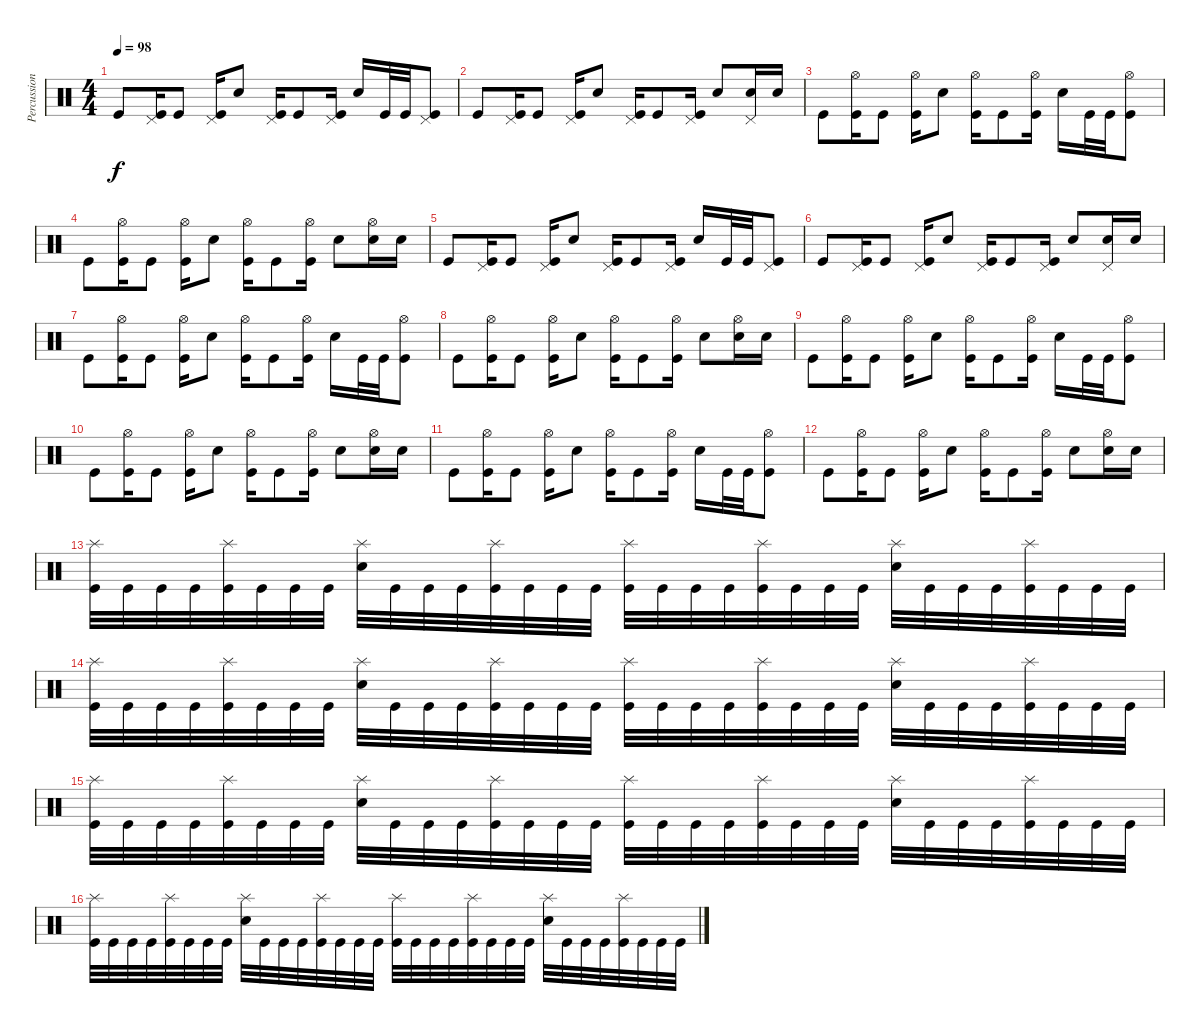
\track ("Percussions" "Percussion") {instrument percussion}
\staff {score}
\articulation defaults
\ts (4 4)
\tempo 98
\clef neutral
\ks c "Kick (hit)".8{dy f}
("Pedal Hi-Hat (hit)" "Kick (hit)").16 "Kick (hit)".8 ("Pedal Hi-Hat (hit)" "Kick (hit)").16 "Snare (hit) 2".8 ("Pedal Hi-Hat (hit)" "Kick (hit)").16 "Kick (hit)".8 ("Pedal Hi-Hat (hit)" "Kick (hit)").16 "Snare (hit) 2".16 "Kick (hit)".32 "Kick (hit)".32 ("Pedal Hi-Hat (hit)" "Kick (hit)").8 |
"Kick (hit)".8 ("Pedal Hi-Hat (hit)" "Kick (hit)").16 "Kick (hit)".8 ("Pedal Hi-Hat (hit)" "Kick (hit)").16 "Snare (hit) 2".8 ("Pedal Hi-Hat (hit)" "Kick (hit)").16 "Kick (hit)".8 ("Pedal Hi-Hat (hit)" "Kick (hit)").16 "Snare (hit) 2".8 ("Pedal Hi-Hat (hit)" "Snare (hit) 2").16 "Snare (hit) 2".16 |
"Kick (hit)".8 ("Hi-Hat (open)" "Kick (hit)").16 "Kick (hit)".8 ("Hi-Hat (open)" "Kick (hit)").16 "Snare (hit) 2".8 ("Hi-Hat (open)" "Kick (hit)").16 "Kick (hit)".8 ("Hi-Hat (open)" "Kick (hit)").16 "Snare (hit) 2".16 "Kick (hit)".32 "Kick (hit)".32 ("Hi-Hat (open)" "Kick (hit)").8 |
"Kick (hit)".8 ("Hi-Hat (open)" "Kick (hit)").16 "Kick (hit)".8 ("Hi-Hat (open)" "Kick (hit)").16 "Snare (hit) 2".8 ("Hi-Hat (open)" "Kick (hit)").16 "Kick (hit)".8 ("Hi-Hat (open)" "Kick (hit)").16 "Snare (hit) 2".8 ("Hi-Hat (open)" "Snare (hit) 2").16 "Snare (hit) 2".16 |
"Kick (hit)".8 ("Pedal Hi-Hat (hit)" "Kick (hit)").16 "Kick (hit)".8 ("Pedal Hi-Hat (hit)" "Kick (hit)").16 "Snare (hit) 2".8 ("Pedal Hi-Hat (hit)" "Kick (hit)").16 "Kick (hit)".8 ("Pedal Hi-Hat (hit)" "Kick (hit)").16 "Snare (hit) 2".16 "Kick (hit)".32 "Kick (hit)".32 ("Pedal Hi-Hat (hit)" "Kick (hit)").8 |
"Kick (hit)".8 ("Pedal Hi-Hat (hit)" "Kick (hit)").16 "Kick (hit)".8 ("Pedal Hi-Hat (hit)" "Kick (hit)").16 "Snare (hit) 2".8 ("Pedal Hi-Hat (hit)" "Kick (hit)").16 "Kick (hit)".8 ("Pedal Hi-Hat (hit)" "Kick (hit)").16 "Snare (hit) 2".8 ("Pedal Hi-Hat (hit)" "Snare (hit) 2").16 "Snare (hit) 2".16 |
"Kick (hit)".8 ("Hi-Hat (open)" "Kick (hit)").16 "Kick (hit)".8 ("Hi-Hat (open)" "Kick (hit)").16 "Snare (hit) 2".8 ("Hi-Hat (open)" "Kick (hit)").16 "Kick (hit)".8 ("Hi-Hat (open)" "Kick (hit)").16 "Snare (hit) 2".16 "Kick (hit)".32 "Kick (hit)".32 ("Hi-Hat (open)" "Kick (hit)").8 |
"Kick (hit)".8 ("Hi-Hat (open)" "Kick (hit)").16 "Kick (hit)".8 ("Hi-Hat (open)" "Kick (hit)").16 "Snare (hit) 2".8 ("Hi-Hat (open)" "Kick (hit)").16 "Kick (hit)".8 ("Hi-Hat (open)" "Kick (hit)").16 "Snare (hit) 2".8 ("Hi-Hat (open)" "Snare (hit) 2").16 "Snare (hit) 2".16 |
"Kick (hit)".8 ("Hi-Hat (open)" "Kick (hit)").16 "Kick (hit)".8 ("Hi-Hat (open)" "Kick (hit)").16 "Snare (hit) 2".8 ("Hi-Hat (open)" "Kick (hit)").16 "Kick (hit)".8 ("Hi-Hat (open)" "Kick (hit)").16 "Snare (hit) 2".16 "Kick (hit)".32 "Kick (hit)".32 ("Hi-Hat (open)" "Kick (hit)").8 |
"Kick (hit)".8 ("Hi-Hat (open)" "Kick (hit)").16 "Kick (hit)".8 ("Hi-Hat (open)" "Kick (hit)").16 "Snare (hit) 2".8 ("Hi-Hat (open)" "Kick (hit)").16 "Kick (hit)".8 ("Hi-Hat (open)" "Kick (hit)").16 "Snare (hit) 2".8 ("Hi-Hat (open)" "Snare (hit) 2").16 "Snare (hit) 2".16 |
"Kick (hit)".8 ("Hi-Hat (open)" "Kick (hit)").16 "Kick (hit)".8 ("Hi-Hat (open)" "Kick (hit)").16 "Snare (hit) 2".8 ("Hi-Hat (open)" "Kick (hit)").16 "Kick (hit)".8 ("Hi-Hat (open)" "Kick (hit)").16 "Snare (hit) 2".16 "Kick (hit)".32 "Kick (hit)".32 ("Hi-Hat (open)" "Kick (hit)").8 |
"Kick (hit)".8 ("Hi-Hat (open)" "Kick (hit)").16 "Kick (hit)".8 ("Hi-Hat (open)" "Kick (hit)").16 "Snare (hit) 2".8 ("Hi-Hat (open)" "Kick (hit)").16 "Kick (hit)".8 ("Hi-Hat (open)" "Kick (hit)").16 "Snare (hit) 2".8 ("Hi-Hat (open)" "Snare (hit) 2").16 "Snare (hit) 2".16 |
("Splash (hit)" "Kick (hit)").32 "Kick (hit)".32 "Kick (hit)".32 "Kick (hit)".32 ("Splash (hit)" "Kick (hit)").32 "Kick (hit)".32 "Kick (hit)".32 "Kick (hit)".32 ("Splash (hit)" "Snare (hit) 2").32 "Kick (hit)".32 "Kick (hit)".32 "Kick (hit)".32 ("Splash (hit)" "Kick (hit)").32 "Kick (hit)".32 "Kick (hit)".32 "Kick (hit)".32 ("Splash (hit)" "Kick (hit)").32 "Kick (hit)".32 "Kick (hit)".32 "Kick (hit)".32 ("Splash (hit)" "Kick (hit)").32 "Kick (hit)".32 "Kick (hit)".32 "Kick (hit)".32 ("Splash (hit)" "Snare (hit) 2").32 "Kick (hit)".32 "Kick (hit)".32 "Kick (hit)".32 ("Splash (hit)" "Kick (hit)").32 "Kick (hit)".32 "Kick (hit)".32 "Kick (hit)".32 |
("Splash (hit)" "Kick (hit)").32 "Kick (hit)".32 "Kick (hit)".32 "Kick (hit)".32 ("Splash (hit)" "Kick (hit)").32 "Kick (hit)".32 "Kick (hit)".32 "Kick (hit)".32 ("Splash (hit)" "Snare (hit) 2").32 "Kick (hit)".32 "Kick (hit)".32 "Kick (hit)".32 ("Splash (hit)" "Kick (hit)").32 "Kick (hit)".32 "Kick (hit)".32 "Kick (hit)".32 ("Splash (hit)" "Kick (hit)").32 "Kick (hit)".32 "Kick (hit)".32 "Kick (hit)".32 ("Splash (hit)" "Kick (hit)").32 "Kick (hit)".32 "Kick (hit)".32 "Kick (hit)".32 ("Splash (hit)" "Snare (hit) 2").32 "Kick (hit)".32 "Kick (hit)".32 "Kick (hit)".32 ("Splash (hit)" "Kick (hit)").32 "Kick (hit)".32 "Kick (hit)".32 "Kick (hit)".32 |
("Splash (hit)" "Kick (hit)").32 "Kick (hit)".32 "Kick (hit)".32 "Kick (hit)".32 ("Splash (hit)" "Kick (hit)").32 "Kick (hit)".32 "Kick (hit)".32 "Kick (hit)".32 ("Splash (hit)" "Snare (hit) 2").32 "Kick (hit)".32 "Kick (hit)".32 "Kick (hit)".32 ("Splash (hit)" "Kick (hit)").32 "Kick (hit)".32 "Kick (hit)".32 "Kick (hit)".32 ("Splash (hit)" "Kick (hit)").32 "Kick (hit)".32 "Kick (hit)".32 "Kick (hit)".32 ("Splash (hit)" "Kick (hit)").32 "Kick (hit)".32 "Kick (hit)".32 "Kick (hit)".32 ("Splash (hit)" "Snare (hit) 2").32 "Kick (hit)".32 "Kick (hit)".32 "Kick (hit)".32 ("Splash (hit)" "Kick (hit)").32 "Kick (hit)".32 "Kick (hit)".32 "Kick (hit)".32 |
("Splash (hit)" "Kick (hit)").32 "Kick (hit)".32 "Kick (hit)".32 "Kick (hit)".32 ("Splash (hit)" "Kick (hit)").32 "Kick (hit)".32 "Kick (hit)".32 "Kick (hit)".32 ("Splash (hit)" "Snare (hit) 2").32 "Kick (hit)".32 "Kick (hit)".32 "Kick (hit)".32 ("Splash (hit)" "Kick (hit)").32 "Kick (hit)".32 "Kick (hit)".32 "Kick (hit)".32 ("Splash (hit)" "Kick (hit)").32 "Kick (hit)".32 "Kick (hit)".32 "Kick (hit)".32 ("Splash (hit)" "Kick (hit)").32 "Kick (hit)".32 "Kick (hit)".32 "Kick (hit)".32 ("Splash (hit)" "Snare (hit) 2").32 "Kick (hit)".32 "Kick (hit)".32 "Kick (hit)".32 ("Splash (hit)" "Kick (hit)").32 "Kick (hit)".32 "Kick (hit)".32 "Kick (hit)".32
